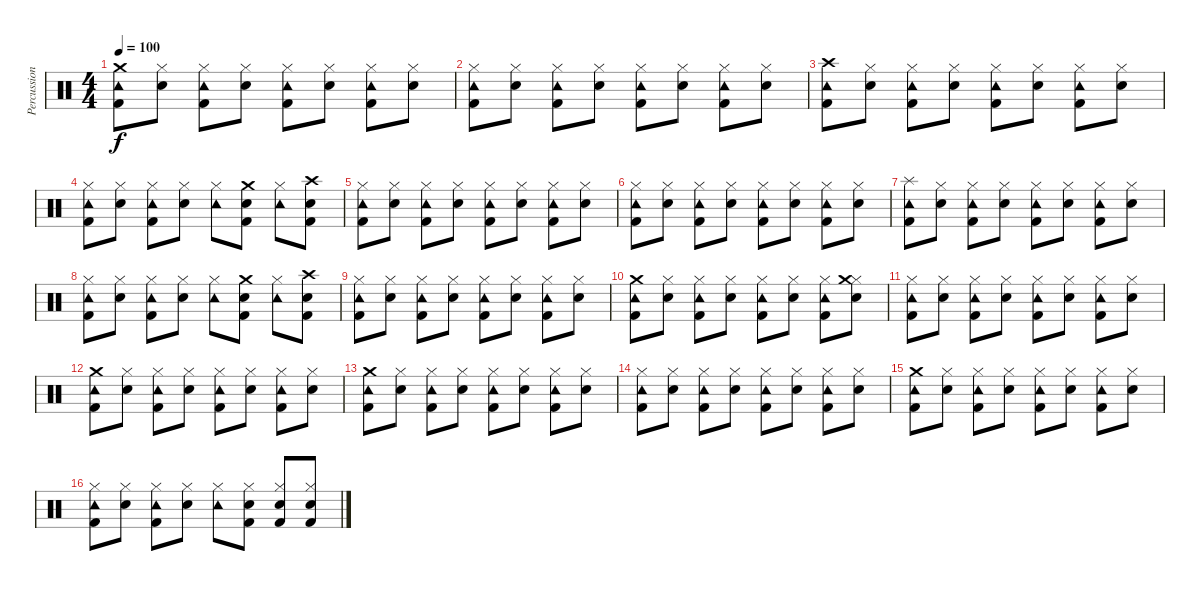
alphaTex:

\track ("Percussion" "Percussion") {instrument percussion}
\staff {score}
\articulation defaults
\ts (4 4)
\tempo 100
\clef neutral
\ks c
("Tambourine (hit)" "Crash medium (hit)" "Kick (hit) 2").8{dy f} ("Hi-Hat (closed)" "Electric Snare (hit)").8 ("Hi-Hat (closed)" "Tambourine (hit)" "Kick (hit) 2").8 ("Hi-Hat (closed)" "Electric Snare (hit)").8 ("Hi-Hat (closed)" "Tambourine (hit)" "Kick (hit) 2").8 ("Hi-Hat (closed)" "Electric Snare (hit)").8 ("Hi-Hat (closed)" "Tambourine (hit)" "Kick (hit) 2").8 ("Hi-Hat (closed)" "Electric Snare (hit)").8 |
("Hi-Hat (closed)" "Tambourine (hit)" "Kick (hit) 2").8 ("Hi-Hat (closed)" "Electric Snare (hit)").8 ("Hi-Hat (closed)" "Tambourine (hit)" "Kick (hit) 2").8 ("Hi-Hat (closed)" "Electric Snare (hit)").8 ("Hi-Hat (closed)" "Tambourine (hit)" "Kick (hit) 2").8 ("Hi-Hat (closed)" "Electric Snare (hit)").8 ("Hi-Hat (closed)" "Tambourine (hit)" "Kick (hit) 2").8 ("Hi-Hat (closed)" "Electric Snare (hit)").8 |
("Tambourine (hit)" "Crash high (hit)" "Kick (hit) 2").8 ("Hi-Hat (closed)" "Electric Snare (hit)").8 ("Hi-Hat (closed)" "Tambourine (hit)" "Kick (hit) 2").8 ("Hi-Hat (closed)" "Electric Snare (hit)").8 ("Hi-Hat (closed)" "Tambourine (hit)" "Kick (hit) 2").8 ("Hi-Hat (closed)" "Electric Snare (hit)").8 ("Hi-Hat (closed)" "Tambourine (hit)" "Kick (hit) 2").8 ("Hi-Hat (closed)" "Electric Snare (hit)").8 |
("Hi-Hat (closed)" "Tambourine (hit)" "Kick (hit) 2").8 ("Hi-Hat (closed)" "Electric Snare (hit)").8 ("Hi-Hat (closed)" "Tambourine (hit)" "Kick (hit) 2").8 ("Hi-Hat (closed)" "Electric Snare (hit)").8 ("Hi-Hat (closed)" "Tambourine (hit)").8 ("Electric Snare (hit)" "Crash medium (hit)" "Kick (hit) 2").8 ("Hi-Hat (closed)" "Tambourine (hit)").8 ("Electric Snare (hit)" "Crash high (hit)" "Kick (hit) 2").8 |
("Hi-Hat (closed)" "Tambourine (hit)" "Kick (hit) 2").8 ("Hi-Hat (closed)" "Electric Snare (hit)").8 ("Hi-Hat (closed)" "Tambourine (hit)" "Kick (hit) 2").8 ("Hi-Hat (closed)" "Electric Snare (hit)").8 ("Hi-Hat (closed)" "Tambourine (hit)" "Kick (hit) 2").8 ("Hi-Hat (closed)" "Electric Snare (hit)").8 ("Hi-Hat (closed)" "Tambourine (hit)" "Kick (hit) 2").8 ("Hi-Hat (closed)" "Electric Snare (hit)").8 |
("Hi-Hat (closed)" "Tambourine (hit)" "Kick (hit) 2").8 ("Hi-Hat (closed)" "Electric Snare (hit)").8 ("Hi-Hat (closed)" "Tambourine (hit)" "Kick (hit) 2").8 ("Hi-Hat (closed)" "Electric Snare (hit)").8 ("Hi-Hat (closed)" "Tambourine (hit)" "Kick (hit) 2").8 ("Hi-Hat (closed)" "Electric Snare (hit)").8 ("Hi-Hat (closed)" "Tambourine (hit)" "Kick (hit) 2").8 ("Hi-Hat (closed)" "Electric Snare (hit)").8 |
("Tambourine (hit)" "Splash (hit)" "Kick (hit) 2").8 ("Hi-Hat (closed)" "Electric Snare (hit)").8 ("Hi-Hat (closed)" "Tambourine (hit)" "Kick (hit) 2").8 ("Hi-Hat (closed)" "Electric Snare (hit)").8 ("Hi-Hat (closed)" "Tambourine (hit)" "Kick (hit) 2").8 ("Hi-Hat (closed)" "Electric Snare (hit)").8 ("Hi-Hat (closed)" "Tambourine (hit)" "Kick (hit) 2").8 ("Hi-Hat (closed)" "Electric Snare (hit)").8 |
("Hi-Hat (closed)" "Tambourine (hit)" "Kick (hit) 2").8 ("Hi-Hat (closed)" "Electric Snare (hit)").8 ("Hi-Hat (closed)" "Tambourine (hit)" "Kick (hit) 2").8 ("Hi-Hat (closed)" "Electric Snare (hit)").8 ("Hi-Hat (closed)" "Tambourine (hit)").8 ("Electric Snare (hit)" "Crash medium (hit)" "Kick (hit) 2").8 ("Hi-Hat (closed)" "Tambourine (hit)").8 ("Electric Snare (hit)" "Crash high (hit)" "Kick (hit) 2").8 |
("Hi-Hat (closed)" "Tambourine (hit)" "Kick (hit) 2").8 ("Hi-Hat (closed)" "Electric Snare (hit)").8 ("Hi-Hat (closed)" "Tambourine (hit)" "Kick (hit) 2").8 ("Hi-Hat (closed)" "Electric Snare (hit)").8 ("Hi-Hat (closed)" "Tambourine (hit)" "Kick (hit) 2").8 ("Hi-Hat (closed)" "Electric Snare (hit)").8 ("Hi-Hat (closed)" "Tambourine (hit)" "Kick (hit) 2").8 ("Hi-Hat (closed)" "Electric Snare (hit)").8 |
("Tambourine (hit)" "Crash medium (hit)" "Kick (hit) 2").8 ("Hi-Hat (closed)" "Electric Snare (hit)").8 ("Hi-Hat (closed)" "Tambourine (hit)" "Kick (hit) 2").8 ("Hi-Hat (closed)" "Electric Snare (hit)").8 ("Hi-Hat (closed)" "Tambourine (hit)" "Kick (hit) 2").8 ("Hi-Hat (closed)" "Electric Snare (hit)").8 ("Hi-Hat (closed)" "Tambourine (hit)" "Kick (hit) 2").8 ("Hi-Hat (closed)" "Electric Snare (hit)" "Crash medium (hit)").8 |
("Hi-Hat (closed)" "Tambourine (hit)" "Kick (hit) 2").8 ("Hi-Hat (closed)" "Electric Snare (hit)").8 ("Hi-Hat (closed)" "Tambourine (hit)" "Kick (hit) 2").8 ("Hi-Hat (closed)" "Electric Snare (hit)").8 ("Hi-Hat (closed)" "Tambourine (hit)" "Kick (hit) 2").8 ("Hi-Hat (closed)" "Electric Snare (hit)").8 ("Hi-Hat (closed)" "Tambourine (hit)" "Kick (hit) 2").8 ("Hi-Hat (closed)" "Electric Snare (hit)").8 |
("Tambourine (hit)" "Crash medium (hit)" "Kick (hit) 2").8 ("Hi-Hat (closed)" "Electric Snare (hit)").8 ("Hi-Hat (closed)" "Tambourine (hit)" "Kick (hit) 2").8 ("Hi-Hat (closed)" "Electric Snare (hit)").8 ("Hi-Hat (closed)" "Tambourine (hit)" "Kick (hit) 2").8 ("Hi-Hat (closed)" "Electric Snare (hit)").8 ("Hi-Hat (closed)" "Tambourine (hit)" "Kick (hit) 2").8 ("Hi-Hat (closed)" "Electric Snare (hit)").8 |
("Tambourine (hit)" "Crash medium (hit)" "Kick (hit) 2").8 ("Hi-Hat (closed)" "Electric Snare (hit)").8 ("Hi-Hat (closed)" "Tambourine (hit)" "Kick (hit) 2").8 ("Hi-Hat (closed)" "Electric Snare (hit)").8 ("Hi-Hat (closed)" "Tambourine (hit)" "Kick (hit) 2").8 ("Hi-Hat (closed)" "Electric Snare (hit)").8 ("Hi-Hat (closed)" "Tambourine (hit)" "Kick (hit) 2").8 ("Hi-Hat (closed)" "Electric Snare (hit)").8 |
("Hi-Hat (closed)" "Tambourine (hit)" "Kick (hit) 2").8 ("Hi-Hat (closed)" "Electric Snare (hit)").8 ("Hi-Hat (closed)" "Tambourine (hit)" "Kick (hit) 2").8 ("Hi-Hat (closed)" "Electric Snare (hit)").8 ("Hi-Hat (closed)" "Tambourine (hit)" "Kick (hit) 2").8 ("Hi-Hat (closed)" "Electric Snare (hit)").8 ("Hi-Hat (closed)" "Tambourine (hit)" "Kick (hit) 2").8 ("Hi-Hat (closed)" "Electric Snare (hit)").8 |
("Tambourine (hit)" "Crash medium (hit)" "Kick (hit) 2").8 ("Hi-Hat (closed)" "Electric Snare (hit)").8 ("Hi-Hat (closed)" "Tambourine (hit)" "Kick (hit) 2").8 ("Hi-Hat (closed)" "Electric Snare (hit)").8 ("Hi-Hat (closed)" "Tambourine (hit)" "Kick (hit) 2").8 ("Hi-Hat (closed)" "Electric Snare (hit)").8 ("Hi-Hat (closed)" "Tambourine (hit)" "Kick (hit) 2").8 ("Hi-Hat (closed)" "Electric Snare (hit)").8 |
("Hi-Hat (closed)" "Tambourine (hit)" "Kick (hit) 2").8 ("Hi-Hat (closed)" "Electric Snare (hit)").8 ("Hi-Hat (closed)" "Tambourine (hit)" "Kick (hit) 2").8 ("Hi-Hat (closed)" "Electric Snare (hit)").8 ("Hi-Hat (closed)" "Tambourine (hit)").8 ("Hi-Hat (closed)" "Electric Snare (hit)" "Kick (hit) 2").8 ("Hi-Hat (closed)" "Electric Snare (hit)" "Kick (hit) 2").8 ("Hi-Hat (closed)" "Electric Snare (hit)" "Kick (hit) 2").8
